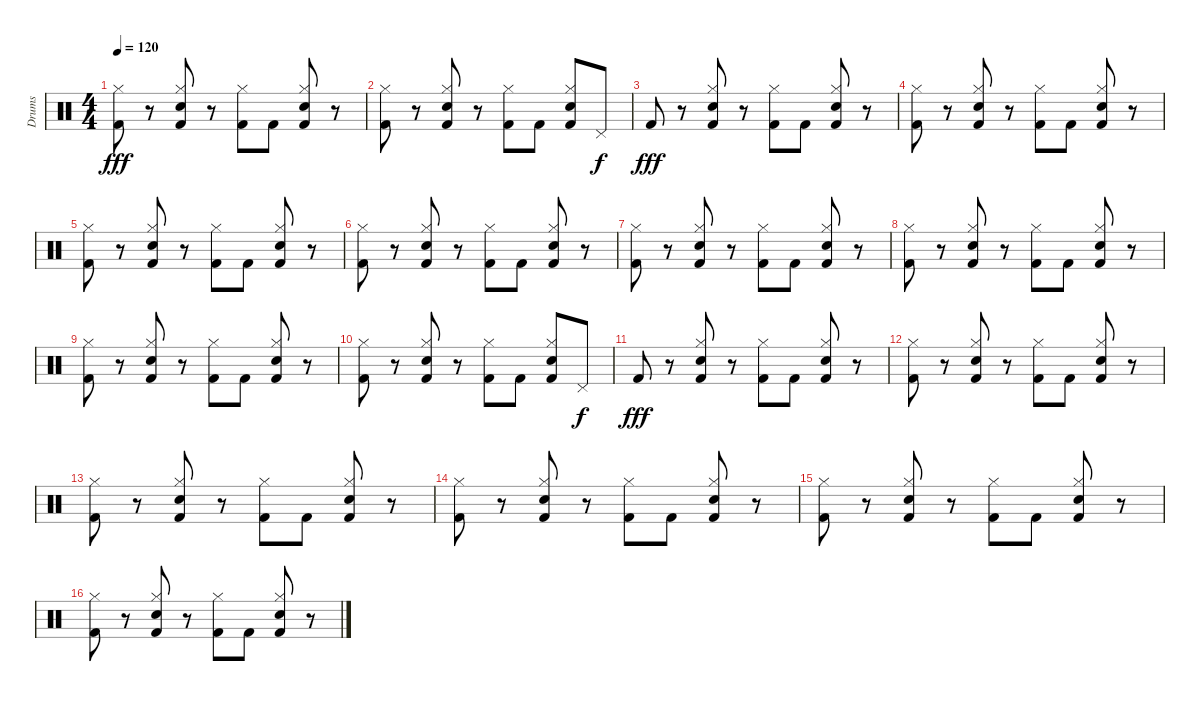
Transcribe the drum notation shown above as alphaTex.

\track ("Drums" "Drums") {instrument percussion}
\staff {score}
\articulation defaults
\ts (4 4)
\tempo 120
\clef neutral
\ks c
("Kick (hit) 2" "Hi-Hat (closed)").8{dy fff} r.8 ("Kick (hit) 2" "Electric Snare (hit)" "Hi-Hat (closed)").8 r.8 ("Kick (hit) 2" "Hi-Hat (closed)").8 "Kick (hit) 2".8 ("Kick (hit) 2" "Electric Snare (hit)" "Hi-Hat (closed)").8 r.8 |
("Kick (hit) 2" "Hi-Hat (closed)").8 r.8 ("Kick (hit) 2" "Electric Snare (hit)" "Hi-Hat (closed)").8 r.8 ("Kick (hit) 2" "Hi-Hat (closed)").8 "Kick (hit) 2".8 ("Kick (hit) 2" "Electric Snare (hit)" "Hi-Hat (closed)").8 "Pedal Hi-Hat (hit)".8{dy f} |
"Kick (hit) 2".8{dy fff} r.8 ("Kick (hit) 2" "Electric Snare (hit)" "Hi-Hat (closed)").8 r.8 ("Kick (hit) 2" "Hi-Hat (closed)").8 "Kick (hit) 2".8 ("Kick (hit) 2" "Electric Snare (hit)" "Hi-Hat (closed)").8 r.8 |
("Kick (hit) 2" "Hi-Hat (closed)").8 r.8 ("Kick (hit) 2" "Electric Snare (hit)" "Hi-Hat (closed)").8 r.8 ("Kick (hit) 2" "Hi-Hat (closed)").8 "Kick (hit) 2".8 ("Kick (hit) 2" "Electric Snare (hit)" "Hi-Hat (closed)").8 r.8 |
("Kick (hit) 2" "Hi-Hat (closed)").8 r.8 ("Kick (hit) 2" "Electric Snare (hit)" "Hi-Hat (closed)").8 r.8 ("Kick (hit) 2" "Hi-Hat (closed)").8 "Kick (hit) 2".8 ("Kick (hit) 2" "Electric Snare (hit)" "Hi-Hat (closed)").8 r.8 |
("Kick (hit) 2" "Hi-Hat (closed)").8 r.8 ("Kick (hit) 2" "Electric Snare (hit)" "Hi-Hat (closed)").8 r.8 ("Kick (hit) 2" "Hi-Hat (closed)").8 "Kick (hit) 2".8 ("Kick (hit) 2" "Electric Snare (hit)" "Hi-Hat (closed)").8 r.8 |
("Kick (hit) 2" "Hi-Hat (closed)").8 r.8 ("Kick (hit) 2" "Electric Snare (hit)" "Hi-Hat (closed)").8 r.8 ("Kick (hit) 2" "Hi-Hat (closed)").8 "Kick (hit) 2".8 ("Kick (hit) 2" "Electric Snare (hit)" "Hi-Hat (closed)").8 r.8 |
("Kick (hit) 2" "Hi-Hat (closed)").8 r.8 ("Kick (hit) 2" "Electric Snare (hit)" "Hi-Hat (closed)").8 r.8 ("Kick (hit) 2" "Hi-Hat (closed)").8 "Kick (hit) 2".8 ("Kick (hit) 2" "Electric Snare (hit)" "Hi-Hat (closed)").8 r.8 |
("Kick (hit) 2" "Hi-Hat (closed)").8 r.8 ("Kick (hit) 2" "Electric Snare (hit)" "Hi-Hat (closed)").8 r.8 ("Kick (hit) 2" "Hi-Hat (closed)").8 "Kick (hit) 2".8 ("Kick (hit) 2" "Electric Snare (hit)" "Hi-Hat (closed)").8 r.8 |
("Kick (hit) 2" "Hi-Hat (closed)").8 r.8 ("Kick (hit) 2" "Electric Snare (hit)" "Hi-Hat (closed)").8 r.8 ("Kick (hit) 2" "Hi-Hat (closed)").8 "Kick (hit) 2".8 ("Kick (hit) 2" "Electric Snare (hit)" "Hi-Hat (closed)").8 "Pedal Hi-Hat (hit)".8{dy f} |
"Kick (hit) 2".8{dy fff} r.8 ("Kick (hit) 2" "Electric Snare (hit)" "Hi-Hat (closed)").8 r.8 ("Kick (hit) 2" "Hi-Hat (closed)").8 "Kick (hit) 2".8 ("Kick (hit) 2" "Electric Snare (hit)" "Hi-Hat (closed)").8 r.8 |
("Kick (hit) 2" "Hi-Hat (closed)").8 r.8 ("Kick (hit) 2" "Electric Snare (hit)" "Hi-Hat (closed)").8 r.8 ("Kick (hit) 2" "Hi-Hat (closed)").8 "Kick (hit) 2".8 ("Kick (hit) 2" "Electric Snare (hit)" "Hi-Hat (closed)").8 r.8 |
("Kick (hit) 2" "Hi-Hat (closed)").8 r.8 ("Kick (hit) 2" "Electric Snare (hit)" "Hi-Hat (closed)").8 r.8 ("Kick (hit) 2" "Hi-Hat (closed)").8 "Kick (hit) 2".8 ("Kick (hit) 2" "Electric Snare (hit)" "Hi-Hat (closed)").8 r.8 |
("Kick (hit) 2" "Hi-Hat (closed)").8 r.8 ("Kick (hit) 2" "Electric Snare (hit)" "Hi-Hat (closed)").8 r.8 ("Kick (hit) 2" "Hi-Hat (closed)").8 "Kick (hit) 2".8 ("Kick (hit) 2" "Electric Snare (hit)" "Hi-Hat (closed)").8 r.8 |
("Kick (hit) 2" "Hi-Hat (closed)").8 r.8 ("Kick (hit) 2" "Electric Snare (hit)" "Hi-Hat (closed)").8 r.8 ("Kick (hit) 2" "Hi-Hat (closed)").8 "Kick (hit) 2".8 ("Kick (hit) 2" "Electric Snare (hit)" "Hi-Hat (closed)").8 r.8 |
("Kick (hit) 2" "Hi-Hat (closed)").8 r.8 ("Kick (hit) 2" "Electric Snare (hit)" "Hi-Hat (closed)").8 r.8 ("Kick (hit) 2" "Hi-Hat (closed)").8 "Kick (hit) 2".8 ("Kick (hit) 2" "Electric Snare (hit)" "Hi-Hat (closed)").8 r.8
